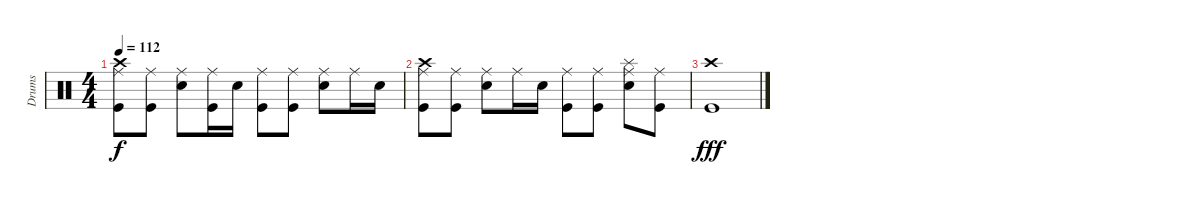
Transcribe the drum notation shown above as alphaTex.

\track ("Drums" "Drums") {instrument percussion}
\staff {score}
\articulation defaults
\ts (4 4)
\tempo 112
\clef neutral
\ks c
("Crash high (hit)" "Ride (middle)" "Kick (hit)").8{dy f} ("Ride (middle)" "Kick (hit)").8 ("Ride (middle)" "Electric Snare (hit)").8 ("Ride (middle)" "Kick (hit)").16 "Electric Snare (hit)".16 ("Ride (middle)" "Kick (hit)").8 ("Ride (middle)" "Kick (hit)").8 ("Ride (middle)" "Electric Snare (hit)").8 "Ride (middle)".16 "Electric Snare (hit)".16 |
("Crash high (hit)" "Ride (middle)" "Kick (hit)").8 ("Ride (middle)" "Kick (hit)").8 ("Ride (middle)" "Electric Snare (hit)").8 "Ride (middle)".16 "Electric Snare (hit)".16 ("Ride (middle)" "Kick (hit)").8 ("Ride (middle)" "Kick (hit)").8 ("Splash (hit)" "Ride (middle)" "Electric Snare (hit)").8 ("Ride (middle)" "Kick (hit)").8 |
("Crash high (hit)" "Kick (hit)").1{dy fff}
